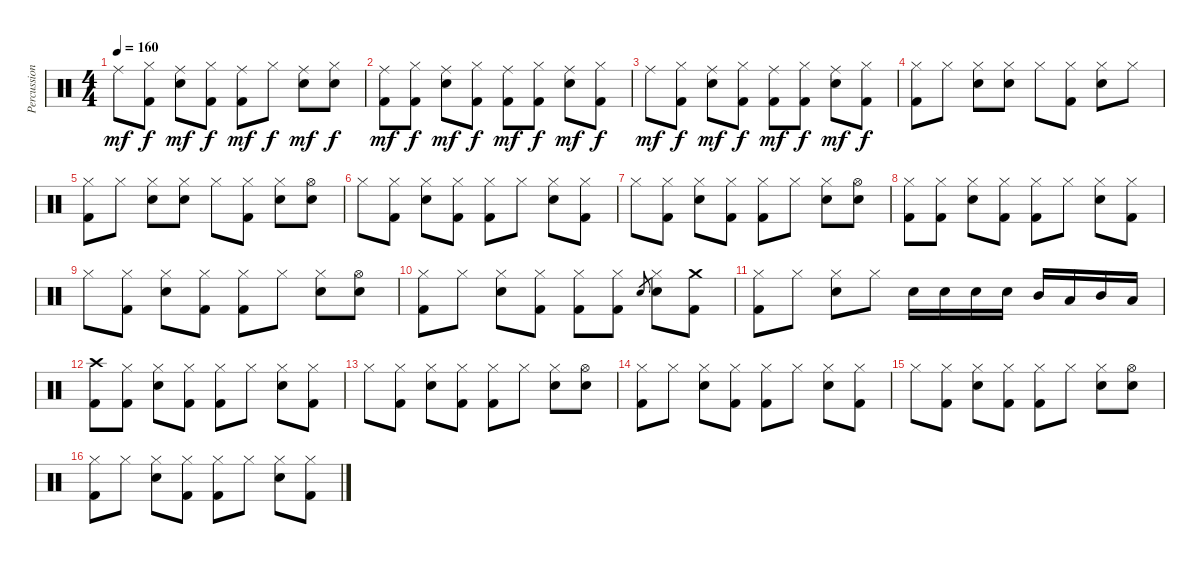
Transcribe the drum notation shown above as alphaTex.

\track ("Percussions" "Percussion") {instrument percussion}
\staff {score}
\articulation defaults
\ts (4 4)
\tempo 160
\clef neutral
\ks c "Ride (middle)".8{dy mf}
("Hi-Hat (closed)" "Kick (hit) 2").8{dy f} ("Ride (middle)" "Electric Snare (hit)").8{dy mf} ("Hi-Hat (closed)" "Kick (hit) 2").8{dy f} ("Ride (middle)" "Kick (hit) 2").8{dy mf} "Hi-Hat (closed)".8{dy f} ("Ride (middle)" "Electric Snare (hit)").8{dy mf} ("Hi-Hat (closed)" "Electric Snare (hit)").8{dy f} |
("Ride (middle)" "Kick (hit) 2").8{dy mf} ("Hi-Hat (closed)" "Kick (hit) 2").8{dy f} ("Ride (middle)" "Electric Snare (hit)").8{dy mf} ("Hi-Hat (closed)" "Kick (hit) 2").8{dy f} ("Ride (middle)" "Kick (hit) 2").8{dy mf} ("Hi-Hat (closed)" "Kick (hit) 2").8{dy f} ("Ride (middle)" "Electric Snare (hit)").8{dy mf} ("Hi-Hat (closed)" "Kick (hit) 2").8{dy f} |
"Ride (middle)".8{dy mf} ("Hi-Hat (closed)" "Kick (hit) 2").8{dy f} ("Ride (middle)" "Electric Snare (hit)").8{dy mf} ("Hi-Hat (closed)" "Kick (hit) 2").8{dy f} ("Ride (middle)" "Kick (hit) 2").8{dy mf} ("Hi-Hat (closed)" "Kick (hit) 2").8{dy f} ("Ride (middle)" "Electric Snare (hit)").8{dy mf} ("Hi-Hat (closed)" "Kick (hit) 2").8{dy f} |
("Hi-Hat (closed)" "Kick (hit) 2").8 "Hi-Hat (closed)".8 ("Hi-Hat (closed)" "Electric Snare (hit)").8 ("Hi-Hat (closed)" "Electric Snare (hit)").8 "Hi-Hat (closed)".8 ("Hi-Hat (closed)" "Kick (hit) 2").8 ("Hi-Hat (closed)" "Electric Snare (hit)").8 "Hi-Hat (closed)".8 |
("Hi-Hat (closed)" "Kick (hit) 2").8 "Hi-Hat (closed)".8 ("Hi-Hat (closed)" "Electric Snare (hit)").8 ("Hi-Hat (closed)" "Electric Snare (hit)").8 "Hi-Hat (closed)".8 ("Hi-Hat (closed)" "Kick (hit) 2").8 ("Hi-Hat (closed)" "Electric Snare (hit)").8 ("Hi-Hat (open)" "Electric Snare (hit)").8 |
"Hi-Hat (closed)".8 ("Hi-Hat (closed)" "Kick (hit) 2").8 ("Hi-Hat (closed)" "Electric Snare (hit)").8 ("Hi-Hat (closed)" "Kick (hit) 2").8 ("Hi-Hat (closed)" "Kick (hit) 2").8 "Hi-Hat (closed)".8 ("Hi-Hat (closed)" "Electric Snare (hit)").8 ("Hi-Hat (closed)" "Kick (hit) 2").8 |
"Hi-Hat (closed)".8 ("Hi-Hat (closed)" "Kick (hit) 2").8 ("Hi-Hat (closed)" "Electric Snare (hit)").8 ("Hi-Hat (closed)" "Kick (hit) 2").8 ("Hi-Hat (closed)" "Kick (hit) 2").8 "Hi-Hat (closed)".8 ("Hi-Hat (closed)" "Electric Snare (hit)").8 ("Hi-Hat (open)" "Electric Snare (hit)").8 |
("Hi-Hat (closed)" "Kick (hit) 2").8 ("Hi-Hat (closed)" "Kick (hit) 2").8 ("Hi-Hat (closed)" "Electric Snare (hit)").8 ("Hi-Hat (closed)" "Kick (hit) 2").8 ("Hi-Hat (closed)" "Kick (hit) 2").8 "Hi-Hat (closed)".8 ("Hi-Hat (closed)" "Electric Snare (hit)").8 ("Hi-Hat (closed)" "Kick (hit) 2").8 |
"Hi-Hat (closed)".8 ("Hi-Hat (closed)" "Kick (hit) 2").8 ("Hi-Hat (closed)" "Electric Snare (hit)").8 ("Hi-Hat (closed)" "Kick (hit) 2").8 ("Hi-Hat (closed)" "Kick (hit) 2").8 "Hi-Hat (closed)".8 ("Hi-Hat (closed)" "Electric Snare (hit)").8 ("Hi-Hat (open)" "Electric Snare (hit)").8 |
("Hi-Hat (closed)" "Kick (hit) 2").8 "Hi-Hat (closed)".8 ("Hi-Hat (closed)" "Electric Snare (hit)").8 ("Hi-Hat (closed)" "Kick (hit) 2").8 ("Hi-Hat (closed)" "Kick (hit) 2").8 ("Hi-Hat (closed)" "Kick (hit) 2").8 "Electric Snare (hit)".8{gr} ("Hi-Hat (closed)" "Electric Snare (hit)").8 ("Crash medium (hit)" "Kick (hit) 2").8 |
("Hi-Hat (closed)" "Kick (hit) 2").8 "Hi-Hat (closed)".8 ("Hi-Hat (closed)" "Electric Snare (hit)").8 "Hi-Hat (closed)".8 "Electric Snare (hit)".16 "Electric Snare (hit)".16 "Electric Snare (hit)".16 "Electric Snare (hit)".16 "Mid Tom (hit)".16 "Low Tom (hit)".16 "Mid Tom (hit)".16 "Low Tom (hit)".16 |
("Crash high (hit)" "Kick (hit) 2").8 ("Hi-Hat (closed)" "Kick (hit) 2").8 ("Hi-Hat (closed)" "Electric Snare (hit)").8 ("Hi-Hat (closed)" "Kick (hit) 2").8 ("Hi-Hat (closed)" "Kick (hit) 2").8 "Hi-Hat (closed)".8 ("Hi-Hat (closed)" "Electric Snare (hit)").8 ("Hi-Hat (closed)" "Kick (hit) 2").8 |
"Hi-Hat (closed)".8 ("Hi-Hat (closed)" "Kick (hit) 2").8 ("Hi-Hat (closed)" "Electric Snare (hit)").8 ("Hi-Hat (closed)" "Kick (hit) 2").8 ("Hi-Hat (closed)" "Kick (hit) 2").8 "Hi-Hat (closed)".8 ("Hi-Hat (closed)" "Electric Snare (hit)").8 ("Hi-Hat (open)" "Electric Snare (hit)").8 |
("Hi-Hat (closed)" "Kick (hit) 2").8 "Hi-Hat (closed)".8 ("Hi-Hat (closed)" "Electric Snare (hit)").8 ("Hi-Hat (closed)" "Kick (hit) 2").8 ("Hi-Hat (closed)" "Kick (hit) 2").8 "Hi-Hat (closed)".8 ("Hi-Hat (closed)" "Electric Snare (hit)").8 ("Hi-Hat (closed)" "Kick (hit) 2").8 |
"Hi-Hat (closed)".8 ("Hi-Hat (closed)" "Kick (hit) 2").8 ("Hi-Hat (closed)" "Electric Snare (hit)").8 ("Hi-Hat (closed)" "Kick (hit) 2").8 ("Hi-Hat (closed)" "Kick (hit) 2").8 "Hi-Hat (closed)".8 ("Hi-Hat (closed)" "Electric Snare (hit)").8 ("Hi-Hat (open)" "Electric Snare (hit)").8 |
("Hi-Hat (closed)" "Kick (hit) 2").8 "Hi-Hat (closed)".8 ("Hi-Hat (closed)" "Electric Snare (hit)").8 ("Hi-Hat (closed)" "Kick (hit) 2").8 ("Hi-Hat (closed)" "Kick (hit) 2").8 "Hi-Hat (closed)".8 ("Hi-Hat (closed)" "Electric Snare (hit)").8 ("Hi-Hat (closed)" "Kick (hit) 2").8
